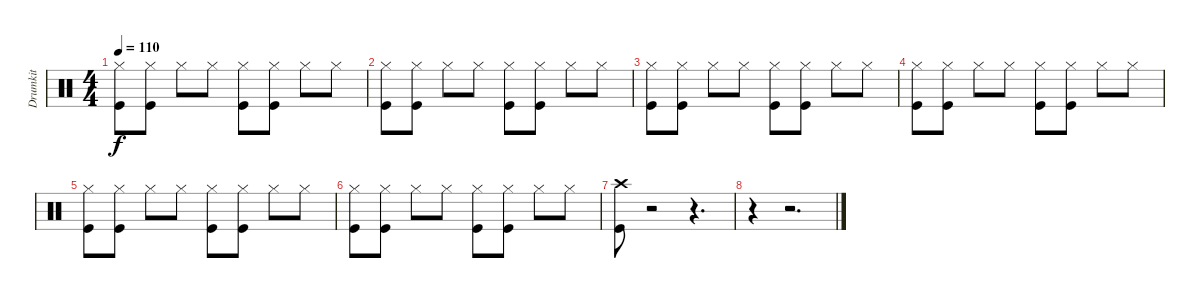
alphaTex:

\track ("Drumkit" "Drumkit") {instrument percussion}
\staff {score}
\articulation defaults
\ts (4 4)
\tempo 110
\clef neutral
\ks c
("Kick (hit)" "Hi-Hat (closed)").8{dy f} ("Kick (hit)" "Hi-Hat (closed)").8 "Hi-Hat (closed)".8 "Hi-Hat (closed)".8 ("Kick (hit)" "Hi-Hat (closed)").8 ("Kick (hit)" "Hi-Hat (closed)").8 "Hi-Hat (closed)".8 "Hi-Hat (closed)".8 |
("Kick (hit)" "Hi-Hat (closed)").8 ("Kick (hit)" "Hi-Hat (closed)").8 "Hi-Hat (closed)".8 "Hi-Hat (closed)".8 ("Kick (hit)" "Hi-Hat (closed)").8 ("Kick (hit)" "Hi-Hat (closed)").8 "Hi-Hat (closed)".8 "Hi-Hat (closed)".8 |
("Kick (hit)" "Hi-Hat (closed)").8 ("Kick (hit)" "Hi-Hat (closed)").8 "Hi-Hat (closed)".8 "Hi-Hat (closed)".8 ("Kick (hit)" "Hi-Hat (closed)").8 ("Kick (hit)" "Hi-Hat (closed)").8 "Hi-Hat (closed)".8 "Hi-Hat (closed)".8 |
("Kick (hit)" "Hi-Hat (closed)").8 ("Kick (hit)" "Hi-Hat (closed)").8 "Hi-Hat (closed)".8 "Hi-Hat (closed)".8 ("Kick (hit)" "Hi-Hat (closed)").8 ("Kick (hit)" "Hi-Hat (closed)").8 "Hi-Hat (closed)".8 "Hi-Hat (closed)".8 |
("Kick (hit)" "Hi-Hat (closed)").8 ("Kick (hit)" "Hi-Hat (closed)").8 "Hi-Hat (closed)".8 "Hi-Hat (closed)".8 ("Kick (hit)" "Hi-Hat (closed)").8 ("Kick (hit)" "Hi-Hat (closed)").8 "Hi-Hat (closed)".8 "Hi-Hat (closed)".8 |
("Kick (hit)" "Hi-Hat (closed)").8 ("Kick (hit)" "Hi-Hat (closed)").8 "Hi-Hat (closed)".8 "Hi-Hat (closed)".8 ("Kick (hit)" "Hi-Hat (closed)").8 ("Kick (hit)" "Hi-Hat (closed)").8 "Hi-Hat (closed)".8 "Hi-Hat (closed)".8 |
("Kick (hit)" "Crash high (hit)").8 r.2 r.4{d} |
r.4 r.2{d}
